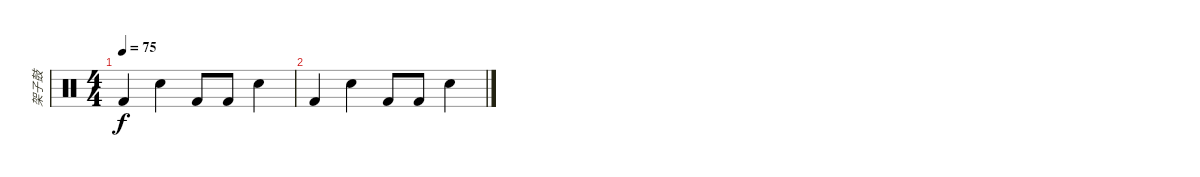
\track ("架子鼓" "架子鼓") {instrument percussion}
\staff {score}
\articulation defaults
\ts (4 4)
\tempo 75
\clef neutral
\ks c "Kick (hit) 2".4{dy f} "Electric Snare (hit)".4 "Kick (hit) 2".8 "Kick (hit) 2".8 "Electric Snare (hit)".4
|
"Kick (hit) 2".4 "Electric Snare (hit)".4 "Kick (hit) 2".8 "Kick (hit) 2".8 "Electric Snare (hit)".4
